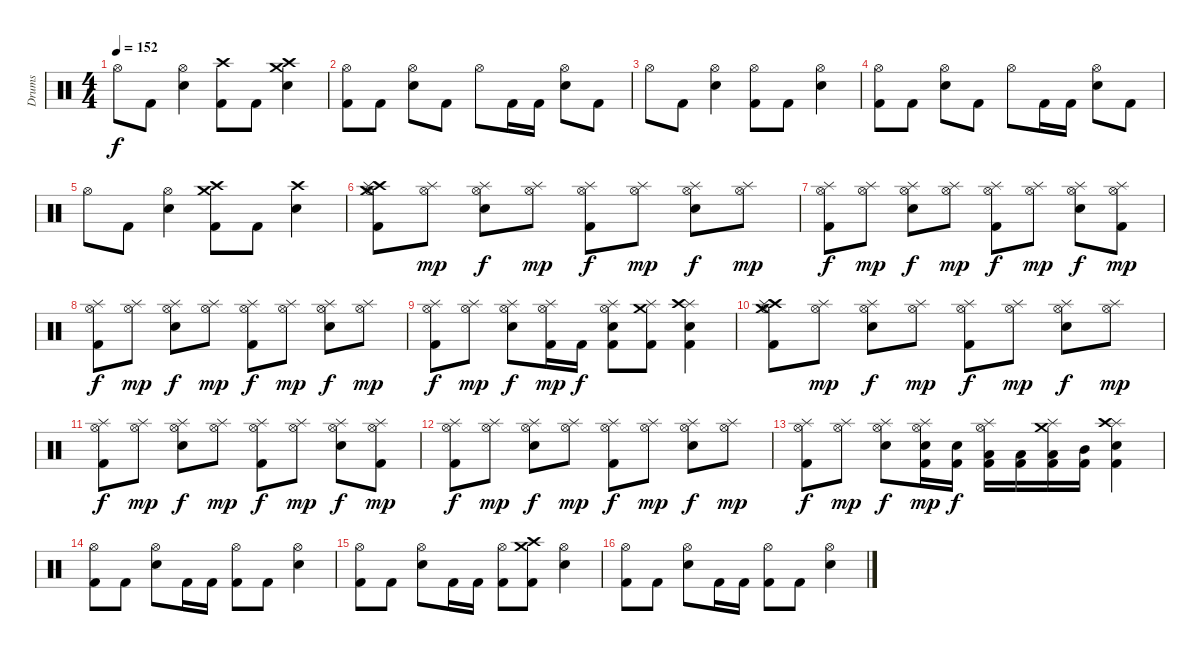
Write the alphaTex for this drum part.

\track ("Drums" "Drums") {instrument percussion}
\staff {score}
\articulation defaults
\ts (4 4)
\tempo 152
\clef neutral
\ks c "Hi-Hat (open)".8{dy f} "Kick (hit) 2".8
("Hi-Hat (open)" "Snare (hit) 2").4 ("Crash high (hit)" "Kick (hit) 2").8 "Kick (hit) 2".8 ("Crash high (hit)" "Crash medium (hit)" "Snare (hit) 2").4 |
("Hi-Hat (open)" "Kick (hit) 2").8 "Kick (hit) 2".8 ("Hi-Hat (open)" "Snare (hit) 2").8 "Kick (hit) 2".8 "Hi-Hat (open)".8 "Kick (hit) 2".16 "Kick (hit) 2".16 ("Hi-Hat (open)" "Snare (hit) 2").8 "Kick (hit) 2".8 |
"Hi-Hat (open)".8 "Kick (hit) 2".8 ("Hi-Hat (open)" "Snare (hit) 2").4 ("Hi-Hat (open)" "Kick (hit) 2").8 "Kick (hit) 2".8 ("Hi-Hat (open)" "Snare (hit) 2").4 |
("Hi-Hat (open)" "Kick (hit) 2").8 "Kick (hit) 2".8 ("Hi-Hat (open)" "Snare (hit) 2").8 "Kick (hit) 2".8 "Hi-Hat (open)".8 "Kick (hit) 2".16 "Kick (hit) 2".16 ("Hi-Hat (open)" "Snare (hit) 2").8 "Kick (hit) 2".8 |
"Hi-Hat (open)".8 "Kick (hit) 2".8 ("Hi-Hat (open)" "Snare (hit) 2").4 ("Crash high (hit)" "Crash medium (hit)" "Kick (hit) 2").8 "Kick (hit) 2".8 ("Crash high (hit)" "Snare (hit) 2").4 |
("Hi-Hat (open)" "Crash medium (hit)" "Crash high (hit)" "Splash (hit)" "Kick (hit) 2").8 ("Hi-Hat (open)" "Splash (hit)").8{dy mp} ("Hi-Hat (open)" "Splash (hit)" "Snare (hit) 2").8{dy f} ("Hi-Hat (open)" "Splash (hit)").8{dy mp} ("Hi-Hat (open)" "Splash (hit)" "Kick (hit) 2").8{dy f} ("Hi-Hat (open)" "Splash (hit)").8{dy mp} ("Hi-Hat (open)" "Splash (hit)" "Snare (hit) 2").8{dy f} ("Hi-Hat (open)" "Splash (hit)").8{dy mp} |
("Hi-Hat (open)" "Splash (hit)" "Kick (hit) 2").8{dy f} ("Hi-Hat (open)" "Splash (hit)").8{dy mp} ("Hi-Hat (open)" "Splash (hit)" "Snare (hit) 2").8{dy f} ("Hi-Hat (open)" "Splash (hit)").8{dy mp} ("Hi-Hat (open)" "Splash (hit)" "Kick (hit) 2").8{dy f} ("Hi-Hat (open)" "Splash (hit)").8{dy mp} ("Hi-Hat (open)" "Splash (hit)" "Snare (hit) 2").8{dy f} ("Hi-Hat (open)" "Splash (hit)" "Kick (hit) 2").8{dy mp} |
("Hi-Hat (open)" "Splash (hit)" "Kick (hit) 2").8{dy f} ("Hi-Hat (open)" "Splash (hit)").8{dy mp} ("Hi-Hat (open)" "Splash (hit)" "Snare (hit) 2").8{dy f} ("Hi-Hat (open)" "Splash (hit)").8{dy mp} ("Hi-Hat (open)" "Splash (hit)" "Kick (hit) 2").8{dy f} ("Hi-Hat (open)" "Splash (hit)").8{dy mp} ("Hi-Hat (open)" "Splash (hit)" "Snare (hit) 2").8{dy f} ("Hi-Hat (open)" "Splash (hit)").8{dy mp} |
("Hi-Hat (open)" "Splash (hit)" "Kick (hit) 2").8{dy f} ("Hi-Hat (open)" "Splash (hit)").8{dy mp} ("Hi-Hat (open)" "Splash (hit)" "Snare (hit) 2").8{dy f} ("Hi-Hat (open)" "Splash (hit)" "Kick (hit) 2").16{dy mp} "Kick (hit) 2".16{dy f} ("Hi-Hat (open)" "Splash (hit)" "Snare (hit) 2" "Kick (hit) 2").8 ("Splash (hit)" "Crash medium (hit)" "Kick (hit) 2").8 ("Splash (hit)" "Crash high (hit)" "Snare (hit) 2" "Kick (hit) 2").4 |
("Hi-Hat (open)" "Crash medium (hit)" "Crash high (hit)" "Splash (hit)" "Kick (hit) 2").8 ("Hi-Hat (open)" "Splash (hit)").8{dy mp} ("Hi-Hat (open)" "Splash (hit)" "Snare (hit) 2").8{dy f} ("Hi-Hat (open)" "Splash (hit)").8{dy mp} ("Hi-Hat (open)" "Splash (hit)" "Kick (hit) 2").8{dy f} ("Hi-Hat (open)" "Splash (hit)").8{dy mp} ("Hi-Hat (open)" "Splash (hit)" "Snare (hit) 2").8{dy f} ("Hi-Hat (open)" "Splash (hit)").8{dy mp} |
("Hi-Hat (open)" "Splash (hit)" "Kick (hit) 2").8{dy f} ("Hi-Hat (open)" "Splash (hit)").8{dy mp} ("Hi-Hat (open)" "Splash (hit)" "Snare (hit) 2").8{dy f} ("Hi-Hat (open)" "Splash (hit)").8{dy mp} ("Hi-Hat (open)" "Splash (hit)" "Kick (hit) 2").8{dy f} ("Hi-Hat (open)" "Splash (hit)").8{dy mp} ("Hi-Hat (open)" "Splash (hit)" "Snare (hit) 2").8{dy f} ("Hi-Hat (open)" "Splash (hit)" "Kick (hit) 2").8{dy mp} |
("Hi-Hat (open)" "Splash (hit)" "Kick (hit) 2").8{dy f} ("Hi-Hat (open)" "Splash (hit)").8{dy mp} ("Hi-Hat (open)" "Splash (hit)" "Snare (hit) 2").8{dy f} ("Hi-Hat (open)" "Splash (hit)").8{dy mp} ("Hi-Hat (open)" "Splash (hit)" "Kick (hit) 2").8{dy f} ("Hi-Hat (open)" "Splash (hit)").8{dy mp} ("Hi-Hat (open)" "Splash (hit)" "Snare (hit) 2").8{dy f} ("Hi-Hat (open)" "Splash (hit)").8{dy mp} |
("Hi-Hat (open)" "Splash (hit)" "Kick (hit) 2").8{dy f} ("Hi-Hat (open)" "Splash (hit)").8{dy mp} ("Hi-Hat (open)" "Splash (hit)" "Snare (hit) 2").8{dy f} ("Hi-Hat (open)" "Splash (hit)" "Snare (hit) 2" "Kick (hit) 2").16{dy mp} ("Snare (hit) 2" "Kick (hit) 2").16{dy f} ("Hi-Hat (open)" "Splash (hit)" "Low Tom (hit)" "Kick (hit) 2").16 ("Low Tom (hit)" "Kick (hit) 2").16 ("Splash (hit)" "Crash medium (hit)" "Low Tom (hit)" "Kick (hit) 2").16 ("Mid Tom (hit)" "Kick (hit) 2").16 ("Splash (hit)" "Crash high (hit)" "Snare (hit) 2" "Kick (hit) 2").4 |
("Hi-Hat (open)" "Kick (hit) 2").8 "Kick (hit) 2".8 ("Hi-Hat (open)" "Snare (hit) 2").8 "Kick (hit) 2".16 "Kick (hit) 2".16 ("Hi-Hat (open)" "Kick (hit) 2").8 "Kick (hit) 2".8 ("Hi-Hat (open)" "Snare (hit) 2").4 |
("Hi-Hat (open)" "Kick (hit) 2").8 "Kick (hit) 2".8 ("Hi-Hat (open)" "Snare (hit) 2").8 "Kick (hit) 2".16 "Kick (hit) 2".16 ("Hi-Hat (open)" "Kick (hit) 2").8 ("Crash medium (hit)" "Crash high (hit)" "Kick (hit) 2").8 ("Hi-Hat (open)" "Snare (hit) 2").4 |
("Hi-Hat (open)" "Kick (hit) 2").8 "Kick (hit) 2".8 ("Hi-Hat (open)" "Snare (hit) 2").8 "Kick (hit) 2".16 "Kick (hit) 2".16 ("Hi-Hat (open)" "Kick (hit) 2").8 "Kick (hit) 2".8 ("Hi-Hat (open)" "Snare (hit) 2").4
